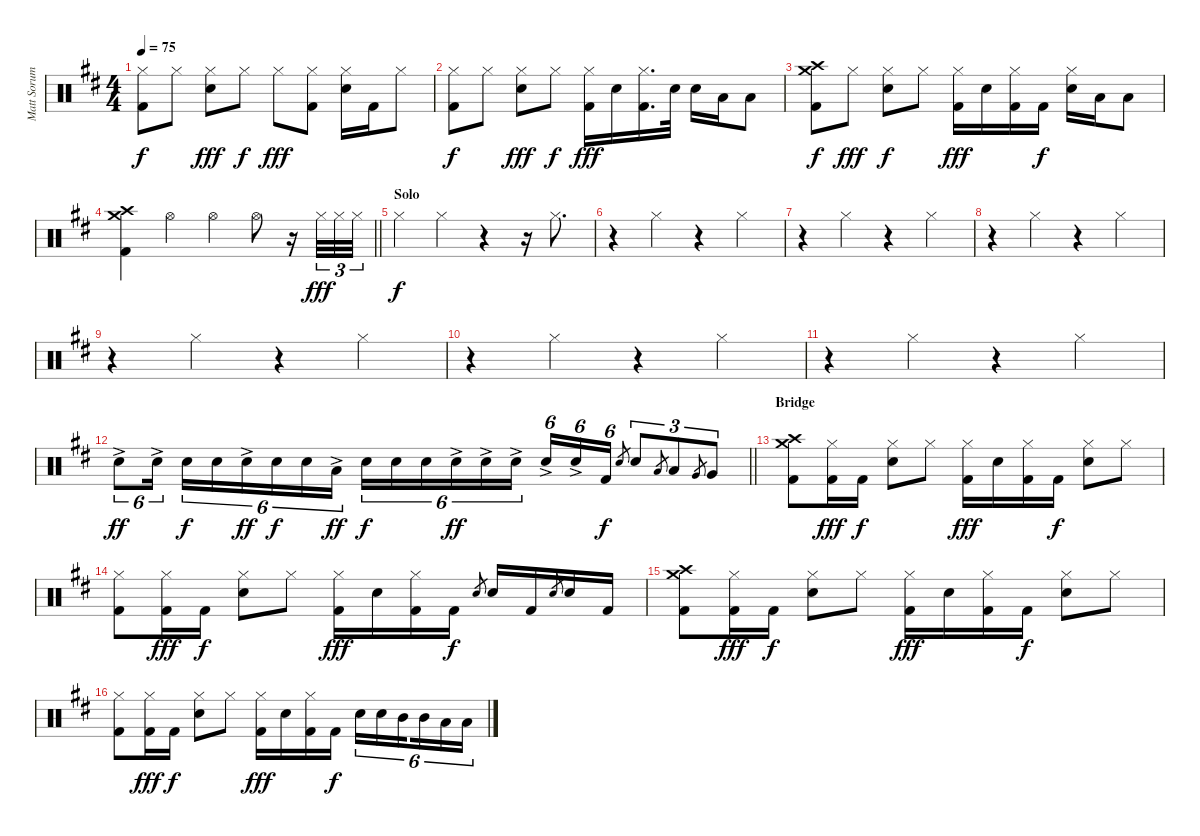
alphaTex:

\track ("Matt Sorum- Drums" "Matt Sorum") {instrument percussion}
\staff {score}
\articulation defaults
\ts (4 4)
\tempo 75
\clef neutral
\ks d
("Hi-Hat (closed)" "Kick (hit) 2").8{dy f} "Hi-Hat (closed)".8 ("Hi-Hat (closed)" "Snare (hit) 2").8{dy fff} "Hi-Hat (closed)".8{dy f} "Hi-Hat (closed)".8{dy fff} ("Hi-Hat (closed)" "Kick (hit) 2").8 ("Hi-Hat (closed)" "Snare (hit) 2").16 "Kick (hit) 2".16 "Hi-Hat (closed)".8 |
("Hi-Hat (closed)" "Kick (hit) 2").8{dy f} "Hi-Hat (closed)".8 ("Hi-Hat (closed)" "Snare (hit) 2").8{dy fff} "Hi-Hat (closed)".8{dy f} ("Hi-Hat (closed)" "Kick (hit) 2").16{dy fff} "Snare (hit) 2".16 ("Hi-Hat (closed)" "Kick (hit) 2").16{d} "Snare (hit) 2".32 "Snare (hit) 2".16 "Low Tom (hit)".16 "Low Tom (hit)".8 |
("Crash medium (hit)" "Crash high (hit)" "Kick (hit) 2").8{dy f} "Hi-Hat (closed)".8{dy fff} ("Hi-Hat (closed)" "Snare (hit) 2").8{dy f} "Hi-Hat (closed)".8 ("Hi-Hat (closed)" "Kick (hit) 2").16{dy fff} "Snare (hit) 2".16 ("Hi-Hat (closed)" "Kick (hit) 2").16 "Kick (hit) 2".16{dy f} ("Hi-Hat (closed)" "Snare (hit) 2").16 "Low Tom (hit)".16 "Low Tom (hit)".8 |
\barLineRight lightlight
("Crash medium (hit)" "Crash high (hit)" "Kick (hit) 2").4 "Hi-Hat (open)".4 "Hi-Hat (open)".4 "Hi-Hat (open)".8 r.16 "Hi-Hat (closed)".32{tu (3 2) dy fff} "Hi-Hat (closed)".32{tu (3 2)} "Hi-Hat (closed)".32{tu (3 2)} |
\section ("" "Solo")
"Hi-Hat (closed)".4{dy f} "Hi-Hat (closed)".4 r.4 r.16 "Hi-Hat (closed)".8{d} |
r.4 "Hi-Hat (closed)".4 r.4 "Hi-Hat (closed)".4 |
r.4 "Hi-Hat (closed)".4 r.4 "Hi-Hat (closed)".4 |
r.4 "Hi-Hat (closed)".4 r.4 "Hi-Hat (closed)".4 |
r.4 "Hi-Hat (closed)".4 r.4 "Hi-Hat (closed)".4 |
r.4 "Hi-Hat (closed)".4 r.4 "Hi-Hat (closed)".4 |
r.4 "Hi-Hat (closed)".4 r.4 "Hi-Hat (closed)".4 |
\barLineRight lightlight "Snare (hit) 2"{ac}.8{tu (6 4) dy ff} "Snare (hit) 2"{ac}.16{tu (6 4) beam splitsecondary} "Snare (hit) 2".16{tu (6 4) dy f} "Snare (hit) 2".16{tu (6 4)} "Snare (hit) 2"{ac}.16{tu (6 4) dy ff} "Snare (hit) 2".16{tu (6 4) dy f} "Snare (hit) 2".16{tu (6 4)} "Low Tom (hit)"{ac}.16{tu (6 4) dy ff beam splitsecondary} "Snare (hit) 2".16{tu (6 4) dy f} "Snare (hit) 2".16{tu (6 4)} "Snare (hit) 2".16{tu (6 4)} "Snare (hit) 2"{ac}.16{tu (6 4) dy ff} "Snare (hit) 2"{ac}.16{tu (6 4)} "Snare (hit) 2"{ac}.16{tu (6 4) beam splitsecondary} "Snare (hit) 2"{ac}.16{tu (6 4)} "Snare (hit) 2"{ac}.16{tu (6 4)} "Kick (hit) 2".16{tu (6 4) dy f} "Snare (hit) 2".8{gr} "Snare (hit) 2".8{tu (3 2)} "Low Tom (hit)".8{gr} "Low Tom (hit)".8{tu (3 2)} "Very Low Tom (hit)".8{gr} "Very Low Tom (hit)".8{tu (3 2)}
|
\section ("" "Bridge")
("Crash medium (hit)" "Crash high (hit)" "Kick (hit) 2").8 ("Hi-Hat (closed)" "Kick (hit) 2").16{dy fff} "Kick (hit) 2".16{dy f} ("Hi-Hat (closed)" "Snare (hit) 2").8 "Hi-Hat (closed)".8 ("Hi-Hat (closed)" "Kick (hit) 2").16{dy fff} "Snare (hit) 2".16 ("Hi-Hat (closed)" "Kick (hit) 2").16 "Kick (hit) 2".16{dy f} ("Hi-Hat (closed)" "Snare (hit) 2").8 "Hi-Hat (closed)".8 |
("Hi-Hat (closed)" "Kick (hit) 2").8 ("Hi-Hat (closed)" "Kick (hit) 2").16{dy fff} "Kick (hit) 2".16{dy f} ("Hi-Hat (closed)" "Snare (hit) 2").8 "Hi-Hat (closed)".8 ("Hi-Hat (closed)" "Kick (hit) 2").16{dy fff} "Snare (hit) 2".16 ("Hi-Hat (closed)" "Kick (hit) 2").16 "Kick (hit) 2".16{dy f} "Snare (hit) 2".8{gr} "Snare (hit) 2".16 "Kick (hit) 2".16 "Snare (hit) 2".8{gr} "Snare (hit) 2".16 "Kick (hit) 2".16 |
("Crash medium (hit)" "Crash high (hit)" "Kick (hit) 2").8 ("Hi-Hat (closed)" "Kick (hit) 2").16{dy fff} "Kick (hit) 2".16{dy f} ("Hi-Hat (closed)" "Snare (hit) 2").8 "Hi-Hat (closed)".8 ("Hi-Hat (closed)" "Kick (hit) 2").16{dy fff} "Snare (hit) 2".16 ("Hi-Hat (closed)" "Kick (hit) 2").16 "Kick (hit) 2".16{dy f} ("Hi-Hat (closed)" "Snare (hit) 2").8 "Hi-Hat (closed)".8 |
("Hi-Hat (closed)" "Kick (hit) 2").8 ("Hi-Hat (closed)" "Kick (hit) 2").16{dy fff} "Kick (hit) 2".16{dy f} ("Hi-Hat (closed)" "Snare (hit) 2").8 "Hi-Hat (closed)".8 ("Hi-Hat (closed)" "Kick (hit) 2").16{dy fff} "Snare (hit) 2".16 ("Hi-Hat (closed)" "Kick (hit) 2").16 "Kick (hit) 2".16{dy f} "Snare (hit) 2".16{tu (6 4)} "Snare (hit) 2".16{tu (6 4)} "Mid Tom (hit)".16{tu (6 4) beam splitsecondary} "Mid Tom (hit)".16{tu (6 4)} "Low Tom (hit)".16{tu (6 4)} "Low Tom (hit)".16{tu (6 4)}
